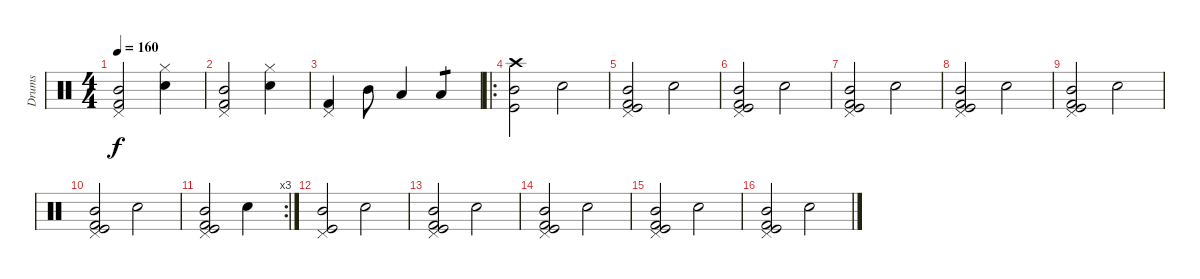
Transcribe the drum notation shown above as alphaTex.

\track ("Drums" "Drums") {instrument percussion}
\staff {score}
\articulation defaults
\ts (4 4)
\tempo 160
\clef neutral
\ks c
("Mid Tom (hit)" "Kick (hit) 2" "Pedal Hi-Hat (hit)").2{dy f} ("Electric Snare (hit)" "Hi-Hat (closed)").4 |
("Mid Tom (hit)" "Kick (hit) 2" "Pedal Hi-Hat (hit)").2 ("Electric Snare (hit)" "Hi-Hat (closed)").4 |
("Kick (hit) 2" "Pedal Hi-Hat (hit)").4 "Mid Tom (hit)".8 "Low Tom (hit)".4 "Low Tom (hit)".4{tp 1} |
\ro
("Kick (hit)" "Crash high (hit)" "Mid Tom (hit)").2 "Electric Snare (hit)".2 |
("Kick (hit)" "Kick (hit) 2" "Pedal Hi-Hat (hit)" "Mid Tom (hit)").2 "Electric Snare (hit)".2 |
("Kick (hit)" "Kick (hit) 2" "Pedal Hi-Hat (hit)" "Mid Tom (hit)").2 "Electric Snare (hit)".2 |
("Kick (hit)" "Kick (hit) 2" "Pedal Hi-Hat (hit)" "Mid Tom (hit)").2 "Electric Snare (hit)".2 |
("Kick (hit)" "Kick (hit) 2" "Pedal Hi-Hat (hit)" "Mid Tom (hit)").2 "Electric Snare (hit)".2 |
("Kick (hit)" "Kick (hit) 2" "Pedal Hi-Hat (hit)" "Mid Tom (hit)").2 "Electric Snare (hit)".2 |
("Kick (hit)" "Kick (hit) 2" "Pedal Hi-Hat (hit)" "Mid Tom (hit)").2 "Electric Snare (hit)".2 |
\rc 3
("Kick (hit)" "Kick (hit) 2" "Pedal Hi-Hat (hit)" "Mid Tom (hit)").2 "Electric Snare (hit)".4 |
("Kick (hit)" "Pedal Hi-Hat (hit)" "Mid Tom (hit)").2 "Electric Snare (hit)".2 |
("Kick (hit)" "Kick (hit) 2" "Pedal Hi-Hat (hit)" "Mid Tom (hit)").2 "Electric Snare (hit)".2 |
("Kick (hit)" "Kick (hit) 2" "Pedal Hi-Hat (hit)" "Mid Tom (hit)").2 "Electric Snare (hit)".2 |
("Kick (hit)" "Kick (hit) 2" "Pedal Hi-Hat (hit)" "Mid Tom (hit)").2 "Electric Snare (hit)".2 |
("Kick (hit)" "Kick (hit) 2" "Pedal Hi-Hat (hit)" "Mid Tom (hit)").2 "Electric Snare (hit)".2
